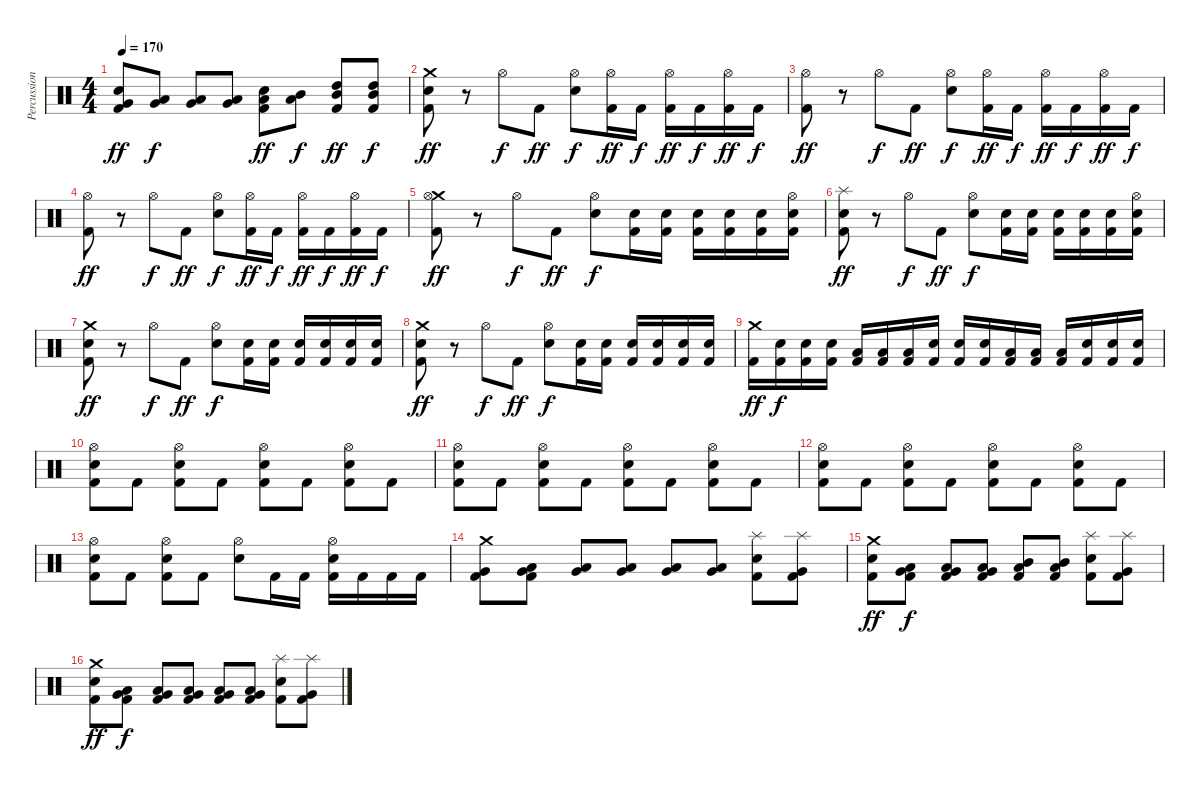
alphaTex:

\track ("Percussion" "Percussion") {instrument percussion}
\staff {score}
\articulation defaults
\ts (4 4)
\tempo 170
\clef neutral
\ks c
("Snare (hit) 2" "Very Low Tom (hit)" "Kick (hit) 2").8{dy ff} ("Very Low Tom (hit)" "Low Tom (hit)").8{dy f} ("Very Low Tom (hit)" "Low Tom (hit)").8 ("Very Low Tom (hit)" "Low Tom (hit)").8 ("Snare (hit) 2" "Low Tom (hit)" "Kick (hit) 2").8{dy ff} ("Low Tom (hit)" "Mid Tom (hit)").8{dy f} ("High Tom (hit)" "Mid Tom (hit)" "Kick (hit) 2").8{dy ff} ("High Tom (hit)" "Mid Tom (hit)" "Kick (hit) 2").8{dy f} |
("Snare (hit) 2" "Crash medium (hit)" "Kick (hit) 2").8{dy ff} r.8 "Hi-Hat (open)".8{dy f} "Kick (hit) 2".8{dy ff} ("Snare (hit) 2" "Hi-Hat (open)").8{dy f} ("Hi-Hat (open)" "Kick (hit) 2").16{dy ff} "Kick (hit) 2".16{dy f} ("Hi-Hat (open)" "Kick (hit) 2").16{dy ff} "Kick (hit) 2".16{dy f} ("Hi-Hat (open)" "Kick (hit) 2").16{dy ff} "Kick (hit) 2".16{dy f} |
("Hi-Hat (open)" "Kick (hit) 2").8{dy ff} r.8 "Hi-Hat (open)".8{dy f} "Kick (hit) 2".8{dy ff} ("Snare (hit) 2" "Hi-Hat (open)").8{dy f} ("Hi-Hat (open)" "Kick (hit) 2").16{dy ff} "Kick (hit) 2".16{dy f} ("Hi-Hat (open)" "Kick (hit) 2").16{dy ff} "Kick (hit) 2".16{dy f} ("Hi-Hat (open)" "Kick (hit) 2").16{dy ff} "Kick (hit) 2".16{dy f} |
("Hi-Hat (open)" "Kick (hit) 2").8{dy ff} r.8 "Hi-Hat (open)".8{dy f} "Kick (hit) 2".8{dy ff} ("Snare (hit) 2" "Hi-Hat (open)").8{dy f} ("Hi-Hat (open)" "Kick (hit) 2").16{dy ff} "Kick (hit) 2".16{dy f} ("Hi-Hat (open)" "Kick (hit) 2").16{dy ff} "Kick (hit) 2".16{dy f} ("Hi-Hat (open)" "Kick (hit) 2").16{dy ff} "Kick (hit) 2".16{dy f} |
("Crash medium (hit)" "Hi-Hat (open)" "Kick (hit) 2").8{dy ff} r.8 "Hi-Hat (open)".8{dy f} "Kick (hit) 2".8{dy ff} ("Snare (hit) 2" "Hi-Hat (open)").8{dy f} ("Snare (hit) 2" "Kick (hit) 2").16 ("Snare (hit) 2" "Kick (hit) 2").16 ("Snare (hit) 2" "Kick (hit) 2").16 ("Snare (hit) 2" "Kick (hit) 2").16 ("Snare (hit) 2" "Kick (hit) 2").16 ("Hi-Hat (open)" "Snare (hit) 2" "Kick (hit) 2").16 |
("Splash (hit)" "Snare (hit) 2" "Kick (hit) 2").8{dy ff} r.8 "Hi-Hat (open)".8{dy f} "Kick (hit) 2".8{dy ff} ("Snare (hit) 2" "Hi-Hat (open)").8{dy f} ("Snare (hit) 2" "Kick (hit) 2").16 ("Snare (hit) 2" "Kick (hit) 2").16 ("Snare (hit) 2" "Kick (hit) 2").16 ("Snare (hit) 2" "Kick (hit) 2").16 ("Snare (hit) 2" "Kick (hit) 2").16 ("Hi-Hat (open)" "Snare (hit) 2" "Kick (hit) 2").16 |
("Crash medium (hit)" "Snare (hit) 2" "Kick (hit) 2").8{dy ff} r.8 "Hi-Hat (open)".8{dy f} "Kick (hit) 2".8{dy ff} ("Snare (hit) 2" "Hi-Hat (open)").8{dy f} ("Snare (hit) 2" "Kick (hit) 2").16 ("Snare (hit) 2" "Kick (hit) 2").16 ("Snare (hit) 2" "Kick (hit) 2").16 ("Snare (hit) 2" "Kick (hit) 2").16 ("Snare (hit) 2" "Kick (hit) 2").16 ("Snare (hit) 2" "Kick (hit) 2").16 |
("Crash medium (hit)" "Snare (hit) 2" "Kick (hit) 2").8{dy ff} r.8 "Hi-Hat (open)".8{dy f} "Kick (hit) 2".8{dy ff} ("Snare (hit) 2" "Hi-Hat (open)").8{dy f} ("Snare (hit) 2" "Kick (hit) 2").16 ("Snare (hit) 2" "Kick (hit) 2").16 ("Snare (hit) 2" "Kick (hit) 2").16 ("Snare (hit) 2" "Kick (hit) 2").16 ("Snare (hit) 2" "Kick (hit) 2").16 ("Snare (hit) 2" "Kick (hit) 2").16 |
("Crash medium (hit)" "Kick (hit) 2").16{dy ff} ("Snare (hit) 2" "Kick (hit) 2").16{dy f} ("Snare (hit) 2" "Kick (hit) 2").16 ("Snare (hit) 2" "Kick (hit) 2").16 ("Low Tom (hit)" "Kick (hit) 2").16 ("Low Tom (hit)" "Kick (hit) 2").16 ("Low Tom (hit)" "Kick (hit) 2").16 ("Snare (hit) 2" "Kick (hit) 2").16 ("Snare (hit) 2" "Kick (hit) 2").16 ("Snare (hit) 2" "Kick (hit) 2").16 ("Low Tom (hit)" "Kick (hit) 2").16 ("Low Tom (hit)" "Kick (hit) 2").16 ("Low Tom (hit)" "Kick (hit) 2").16 ("Snare (hit) 2" "Kick (hit) 2").16 ("Snare (hit) 2" "Kick (hit) 2").16 ("Snare (hit) 2" "Kick (hit) 2").16 |
("Snare (hit) 2" "Hi-Hat (open)" "Kick (hit) 2").8 "Kick (hit) 2".8 ("Snare (hit) 2" "Hi-Hat (open)" "Kick (hit) 2").8 "Kick (hit) 2".8 ("Snare (hit) 2" "Hi-Hat (open)" "Kick (hit) 2").8 "Kick (hit) 2".8 ("Snare (hit) 2" "Hi-Hat (open)" "Kick (hit) 2").8 "Kick (hit) 2".8 |
("Snare (hit) 2" "Hi-Hat (open)" "Kick (hit) 2").8 "Kick (hit) 2".8 ("Snare (hit) 2" "Hi-Hat (open)" "Kick (hit) 2").8 "Kick (hit) 2".8 ("Snare (hit) 2" "Hi-Hat (open)" "Kick (hit) 2").8 "Kick (hit) 2".8 ("Snare (hit) 2" "Hi-Hat (open)" "Kick (hit) 2").8 "Kick (hit) 2".8 |
("Snare (hit) 2" "Hi-Hat (open)" "Kick (hit) 2").8 "Kick (hit) 2".8 ("Snare (hit) 2" "Hi-Hat (open)" "Kick (hit) 2").8 "Kick (hit) 2".8 ("Snare (hit) 2" "Hi-Hat (open)" "Kick (hit) 2").8 "Kick (hit) 2".8 ("Snare (hit) 2" "Hi-Hat (open)" "Kick (hit) 2").8 "Kick (hit) 2".8 |
("Snare (hit) 2" "Hi-Hat (open)" "Kick (hit) 2").8 "Kick (hit) 2".8 ("Snare (hit) 2" "Hi-Hat (open)" "Kick (hit) 2").8 "Kick (hit) 2".8 ("Snare (hit) 2" "Hi-Hat (open)").8 "Kick (hit) 2".16 "Kick (hit) 2".16 ("Snare (hit) 2" "Hi-Hat (open)" "Kick (hit) 2").16 "Kick (hit) 2".16 "Kick (hit) 2".16 "Kick (hit) 2".16 |
("Crash medium (hit)" "Very Low Tom (hit)" "Kick (hit) 2").8 ("Very Low Tom (hit)" "Low Tom (hit)" "Kick (hit) 2").8 ("Very Low Tom (hit)" "Low Tom (hit)").8 ("Very Low Tom (hit)" "Low Tom (hit)").8 ("Very Low Tom (hit)" "Low Tom (hit)").8 ("Very Low Tom (hit)" "Low Tom (hit)").8 ("Splash (hit)" "Snare (hit) 2" "Kick (hit) 2").8 ("Splash (hit)" "Very Low Tom (hit)" "Kick (hit) 2").8 |
("Crash medium (hit)" "Snare (hit) 2" "Kick (hit) 2").8{dy ff} ("Very Low Tom (hit)" "Low Tom (hit)" "Kick (hit) 2").8{dy f} ("Very Low Tom (hit)" "Low Tom (hit)" "Kick (hit) 2").8 ("Very Low Tom (hit)" "Low Tom (hit)" "Kick (hit) 2").8 ("Low Tom (hit)" "Mid Tom (hit)" "Kick (hit) 2").8 ("Low Tom (hit)" "Mid Tom (hit)" "Kick (hit) 2").8 ("Splash (hit)" "Snare (hit) 2" "Kick (hit) 2").8 ("Splash (hit)" "Very Low Tom (hit)" "Kick (hit) 2").8 |
("Crash medium (hit)" "Snare (hit) 2" "Kick (hit) 2").8{dy ff} ("Very Low Tom (hit)" "Low Tom (hit)" "Kick (hit) 2").8{dy f} ("Very Low Tom (hit)" "Low Tom (hit)" "Kick (hit) 2").8 ("Very Low Tom (hit)" "Low Tom (hit)" "Kick (hit) 2").8 ("Very Low Tom (hit)" "Low Tom (hit)" "Kick (hit) 2").8 ("Very Low Tom (hit)" "Low Tom (hit)" "Kick (hit) 2").8 ("Splash (hit)" "Snare (hit) 2" "Kick (hit) 2").8 ("Splash (hit)" "Very Low Tom (hit)" "Kick (hit) 2").8
